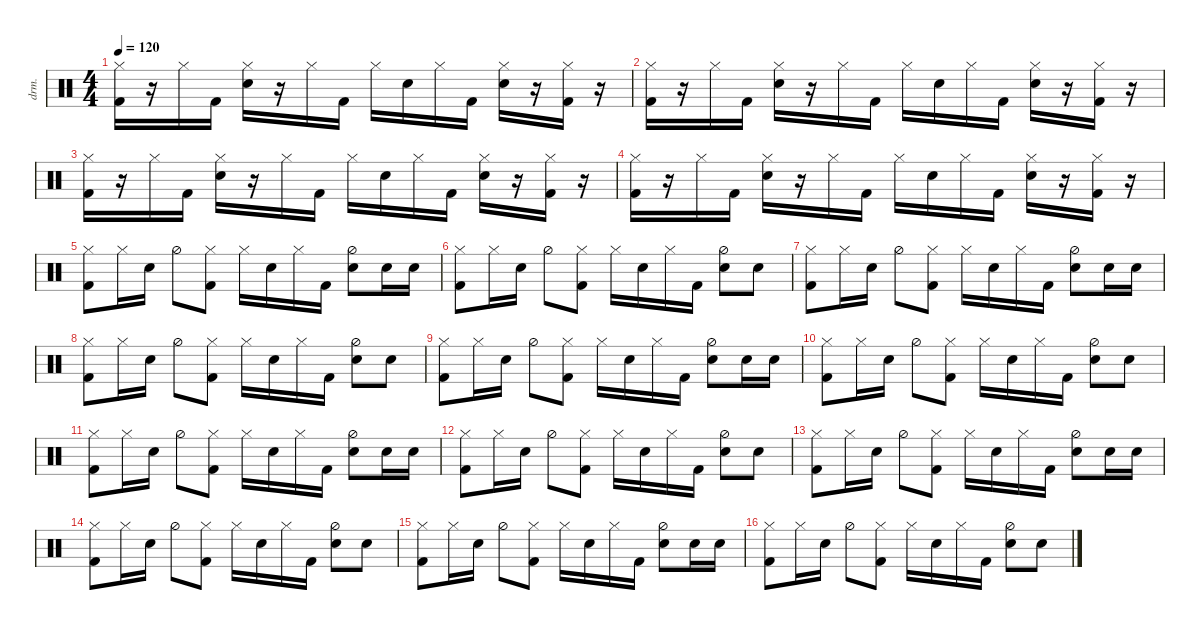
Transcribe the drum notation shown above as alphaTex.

\defaultSystemsLayout 4
\hideDynamics
\bracketExtendMode nobrackets
\otherSystemsTrackNameOrientation horizontal
\track ("Drumkit" "drm.") {instrument percussion}
\staff {score}
\articulation defaults
\ts (4 4)
\tempo 120
\clef neutral
\ks c
("Hi-Hat (closed)" "Kick (hit) 2").16{dy mf beam Down} r.16{beam Down} "Hi-Hat (closed)".16{beam Down} "Kick (hit) 2".16{beam Down} ("Hi-Hat (closed)" "Snare (hit) 2").16{beam Down} r.16{beam Down} "Hi-Hat (closed)".16{beam Down} "Kick (hit) 2".16{beam Down} "Hi-Hat (closed)".16{beam Down} "Snare (hit) 2".16{beam Down} "Hi-Hat (closed)".16{beam Down} "Kick (hit) 2".16{beam Down} ("Hi-Hat (closed)" "Snare (hit) 2").16{beam Down} r.16{beam Down} ("Hi-Hat (closed)" "Kick (hit) 2").16{beam Down} r.16{beam Down} |
("Hi-Hat (closed)" "Kick (hit) 2").16{beam Down} r.16{beam Down} "Hi-Hat (closed)".16{beam Down} "Kick (hit) 2".16{beam Down} ("Hi-Hat (closed)" "Snare (hit) 2").16{beam Down} r.16{beam Down} "Hi-Hat (closed)".16{beam Down} "Kick (hit) 2".16{beam Down} "Hi-Hat (closed)".16{beam Down} "Snare (hit) 2".16{beam Down} "Hi-Hat (closed)".16{beam Down} "Kick (hit) 2".16{beam Down} ("Hi-Hat (closed)" "Snare (hit) 2").16{beam Down} r.16{beam Down} ("Hi-Hat (closed)" "Kick (hit) 2").16{beam Down} r.16{beam Down} |
("Hi-Hat (closed)" "Kick (hit) 2").16{beam Down} r.16{beam Down} "Hi-Hat (closed)".16{beam Down} "Kick (hit) 2".16{beam Down} ("Hi-Hat (closed)" "Snare (hit) 2").16{beam Down} r.16{beam Down} "Hi-Hat (closed)".16{beam Down} "Kick (hit) 2".16{beam Down} "Hi-Hat (closed)".16{beam Down} "Snare (hit) 2".16{beam Down} "Hi-Hat (closed)".16{beam Down} "Kick (hit) 2".16{beam Down} ("Hi-Hat (closed)" "Snare (hit) 2").16{beam Down} r.16{beam Down} ("Hi-Hat (closed)" "Kick (hit) 2").16{beam Down} r.16{beam Down} |
("Hi-Hat (closed)" "Kick (hit) 2").16{beam Down} r.16{beam Down} "Hi-Hat (closed)".16{beam Down} "Kick (hit) 2".16{beam Down} ("Hi-Hat (closed)" "Snare (hit) 2").16{beam Down} r.16{beam Down} "Hi-Hat (closed)".16{beam Down} "Kick (hit) 2".16{beam Down} "Hi-Hat (closed)".16{beam Down} "Snare (hit) 2".16{beam Down} "Hi-Hat (closed)".16{beam Down} "Kick (hit) 2".16{beam Down} ("Hi-Hat (closed)" "Snare (hit) 2").16{beam Down} r.16{beam Down} ("Hi-Hat (closed)" "Kick (hit) 2").16{beam Down} r.16{beam Down} |
("Kick (hit) 2" "Hi-Hat (closed)").8{beam Down} "Hi-Hat (closed)".16{beam Down} "Snare (hit) 2".16{beam Down} "Hi-Hat (half)".8{beam Down} ("Kick (hit) 2" "Hi-Hat (closed)").8{beam Down} "Hi-Hat (closed)".16{beam Down} "Snare (hit) 2".16{beam Down} "Hi-Hat (closed)".16{beam Down} "Kick (hit) 2".16{beam Down} ("Snare (hit) 2" "Hi-Hat (half)").8{beam Down} "Snare (hit) 2".16{beam Down} "Snare (hit) 2".16{beam Down} |
("Kick (hit) 2" "Hi-Hat (closed)").8{beam Down} "Hi-Hat (closed)".16{beam Down} "Snare (hit) 2".16{beam Down} "Hi-Hat (half)".8{beam Down} ("Kick (hit) 2" "Hi-Hat (closed)").8{beam Down} "Hi-Hat (closed)".16{beam Down} "Snare (hit) 2".16{beam Down} "Hi-Hat (closed)".16{beam Down} "Kick (hit) 2".16{beam Down} ("Snare (hit) 2" "Hi-Hat (half)").8{beam Down} "Snare (hit) 2".8{beam Down} |
("Kick (hit) 2" "Hi-Hat (closed)").8{beam Down} "Hi-Hat (closed)".16{beam Down} "Snare (hit) 2".16{beam Down} "Hi-Hat (half)".8{beam Down} ("Kick (hit) 2" "Hi-Hat (closed)").8{beam Down} "Hi-Hat (closed)".16{beam Down} "Snare (hit) 2".16{beam Down} "Hi-Hat (closed)".16{beam Down} "Kick (hit) 2".16{beam Down} ("Snare (hit) 2" "Hi-Hat (half)").8{beam Down} "Snare (hit) 2".16{beam Down} "Snare (hit) 2".16{beam Down} |
("Kick (hit) 2" "Hi-Hat (closed)").8{beam Down} "Hi-Hat (closed)".16{beam Down} "Snare (hit) 2".16{beam Down} "Hi-Hat (half)".8{beam Down} ("Kick (hit) 2" "Hi-Hat (closed)").8{beam Down} "Hi-Hat (closed)".16{beam Down} "Snare (hit) 2".16{beam Down} "Hi-Hat (closed)".16{beam Down} "Kick (hit) 2".16{beam Down} ("Snare (hit) 2" "Hi-Hat (half)").8{beam Down} "Snare (hit) 2".8{beam Down} |
("Kick (hit) 2" "Hi-Hat (closed)").8{beam Down} "Hi-Hat (closed)".16{beam Down} "Snare (hit) 2".16{beam Down} "Hi-Hat (half)".8{beam Down} ("Kick (hit) 2" "Hi-Hat (closed)").8{beam Down} "Hi-Hat (closed)".16{beam Down} "Snare (hit) 2".16{beam Down} "Hi-Hat (closed)".16{beam Down} "Kick (hit) 2".16{beam Down} ("Snare (hit) 2" "Hi-Hat (half)").8{beam Down} "Snare (hit) 2".16{beam Down} "Snare (hit) 2".16{beam Down} |
("Kick (hit) 2" "Hi-Hat (closed)").8{beam Down} "Hi-Hat (closed)".16{beam Down} "Snare (hit) 2".16{beam Down} "Hi-Hat (half)".8{beam Down} ("Kick (hit) 2" "Hi-Hat (closed)").8{beam Down} "Hi-Hat (closed)".16{beam Down} "Snare (hit) 2".16{beam Down} "Hi-Hat (closed)".16{beam Down} "Kick (hit) 2".16{beam Down} ("Snare (hit) 2" "Hi-Hat (half)").8{beam Down} "Snare (hit) 2".8{beam Down} |
("Kick (hit) 2" "Hi-Hat (closed)").8{beam Down} "Hi-Hat (closed)".16{beam Down} "Snare (hit) 2".16{beam Down} "Hi-Hat (half)".8{beam Down} ("Kick (hit) 2" "Hi-Hat (closed)").8{beam Down} "Hi-Hat (closed)".16{beam Down} "Snare (hit) 2".16{beam Down} "Hi-Hat (closed)".16{beam Down} "Kick (hit) 2".16{beam Down} ("Snare (hit) 2" "Hi-Hat (half)").8{beam Down} "Snare (hit) 2".16{beam Down} "Snare (hit) 2".16{beam Down} |
("Kick (hit) 2" "Hi-Hat (closed)").8{beam Down} "Hi-Hat (closed)".16{beam Down} "Snare (hit) 2".16{beam Down} "Hi-Hat (half)".8{beam Down} ("Kick (hit) 2" "Hi-Hat (closed)").8{beam Down} "Hi-Hat (closed)".16{beam Down} "Snare (hit) 2".16{beam Down} "Hi-Hat (closed)".16{beam Down} "Kick (hit) 2".16{beam Down} ("Snare (hit) 2" "Hi-Hat (half)").8{beam Down} "Snare (hit) 2".8{beam Down} |
("Kick (hit) 2" "Hi-Hat (closed)").8{beam Down} "Hi-Hat (closed)".16{beam Down} "Snare (hit) 2".16{beam Down} "Hi-Hat (half)".8{beam Down} ("Kick (hit) 2" "Hi-Hat (closed)").8{beam Down} "Hi-Hat (closed)".16{beam Down} "Snare (hit) 2".16{beam Down} "Hi-Hat (closed)".16{beam Down} "Kick (hit) 2".16{beam Down} ("Snare (hit) 2" "Hi-Hat (half)").8{beam Down} "Snare (hit) 2".16{beam Down} "Snare (hit) 2".16{beam Down} |
("Kick (hit) 2" "Hi-Hat (closed)").8{beam Down} "Hi-Hat (closed)".16{beam Down} "Snare (hit) 2".16{beam Down} "Hi-Hat (half)".8{beam Down} ("Kick (hit) 2" "Hi-Hat (closed)").8{beam Down} "Hi-Hat (closed)".16{beam Down} "Snare (hit) 2".16{beam Down} "Hi-Hat (closed)".16{beam Down} "Kick (hit) 2".16{beam Down} ("Snare (hit) 2" "Hi-Hat (half)").8{beam Down} "Snare (hit) 2".8{beam Down} |
("Kick (hit) 2" "Hi-Hat (closed)").8{beam Down} "Hi-Hat (closed)".16{beam Down} "Snare (hit) 2".16{beam Down} "Hi-Hat (half)".8{beam Down} ("Kick (hit) 2" "Hi-Hat (closed)").8{beam Down} "Hi-Hat (closed)".16{beam Down} "Snare (hit) 2".16{beam Down} "Hi-Hat (closed)".16{beam Down} "Kick (hit) 2".16{beam Down} ("Snare (hit) 2" "Hi-Hat (half)").8{beam Down} "Snare (hit) 2".16{beam Down} "Snare (hit) 2".16{beam Down} |
("Kick (hit) 2" "Hi-Hat (closed)").8{beam Down} "Hi-Hat (closed)".16{beam Down} "Snare (hit) 2".16{beam Down} "Hi-Hat (half)".8{beam Down} ("Kick (hit) 2" "Hi-Hat (closed)").8{beam Down} "Hi-Hat (closed)".16{beam Down} "Snare (hit) 2".16{beam Down} "Hi-Hat (closed)".16{beam Down} "Kick (hit) 2".16{beam Down} ("Snare (hit) 2" "Hi-Hat (half)").8{beam Down} "Snare (hit) 2".8{beam Down}
